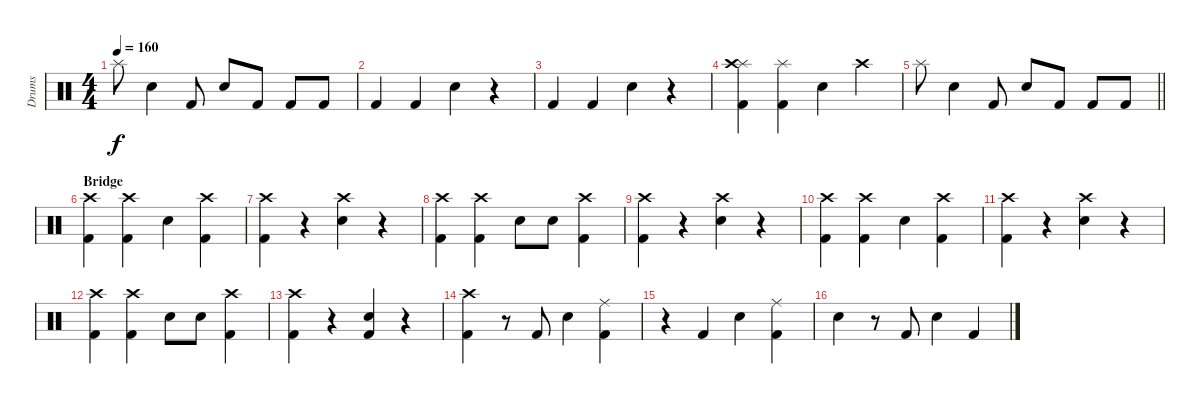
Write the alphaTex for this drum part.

\track ("Drums" "Drums") {instrument percussion}
\staff {score}
\articulation defaults
\ts (4 4)
\tempo 160
\clef neutral
\ks c "Splash (hit)".8{dy f} "Snare (hit) 2".4 "Kick (hit) 2".8 "Snare (hit) 2".8 "Kick (hit) 2".8 "Kick (hit) 2".8 "Kick (hit) 2".8
|
"Kick (hit) 2".4 "Kick (hit) 2".4 "Snare (hit) 2".4 r.4 |
"Kick (hit) 2".4 "Kick (hit) 2".4 "Snare (hit) 2".4 r.4 |
("Kick (hit) 2" "Splash (hit)" "Crash high (hit)").4 ("Kick (hit) 2" "Splash (hit)").4 "Snare (hit) 2".4 "Crash high (hit)".4 |
\barLineRight lightlight "Splash (hit)".8 "Snare (hit) 2".4 "Kick (hit) 2".8 "Snare (hit) 2".8 "Kick (hit) 2".8 "Kick (hit) 2".8 "Kick (hit) 2".8
|
\section ("" "Bridge")
("Kick (hit) 2" "Crash high (hit)").4 ("Kick (hit) 2" "Crash high (hit)").4 "Snare (hit) 2".4 ("Kick (hit) 2" "Crash high (hit)").4 |
("Kick (hit) 2" "Crash high (hit)").4 r.4 ("Crash high (hit)" "Snare (hit) 2").4 r.4 |
("Kick (hit) 2" "Crash high (hit)").4 ("Kick (hit) 2" "Crash high (hit)").4 "Snare (hit) 2".8 "Snare (hit) 2".8 ("Kick (hit) 2" "Crash high (hit)").4 |
("Kick (hit) 2" "Crash high (hit)").4 r.4 ("Crash high (hit)" "Snare (hit) 2").4 r.4 |
("Kick (hit) 2" "Crash high (hit)").4 ("Kick (hit) 2" "Crash high (hit)").4 "Snare (hit) 2".4 ("Kick (hit) 2" "Crash high (hit)").4 |
("Kick (hit) 2" "Crash high (hit)").4 r.4 ("Crash high (hit)" "Snare (hit) 2").4 r.4 |
("Kick (hit) 2" "Crash high (hit)").4 ("Kick (hit) 2" "Crash high (hit)").4 "Snare (hit) 2".8 "Snare (hit) 2".8 ("Kick (hit) 2" "Crash high (hit)").4 |
("Kick (hit) 2" "Crash high (hit)").4 r.4 ("Kick (hit) 2" "Snare (hit) 2").4 r.4 |
("Kick (hit) 2" "Crash high (hit)").4 r.8 "Kick (hit) 2".8 "Snare (hit) 2".4 ("Kick (hit) 2" "Ride (middle)").4 |
r.4 "Kick (hit) 2".4 "Snare (hit) 2".4 ("Kick (hit) 2" "Ride (middle)").4 |
"Snare (hit) 2".4 r.8 "Kick (hit) 2".8 "Snare (hit) 2".4 "Kick (hit) 2".4
